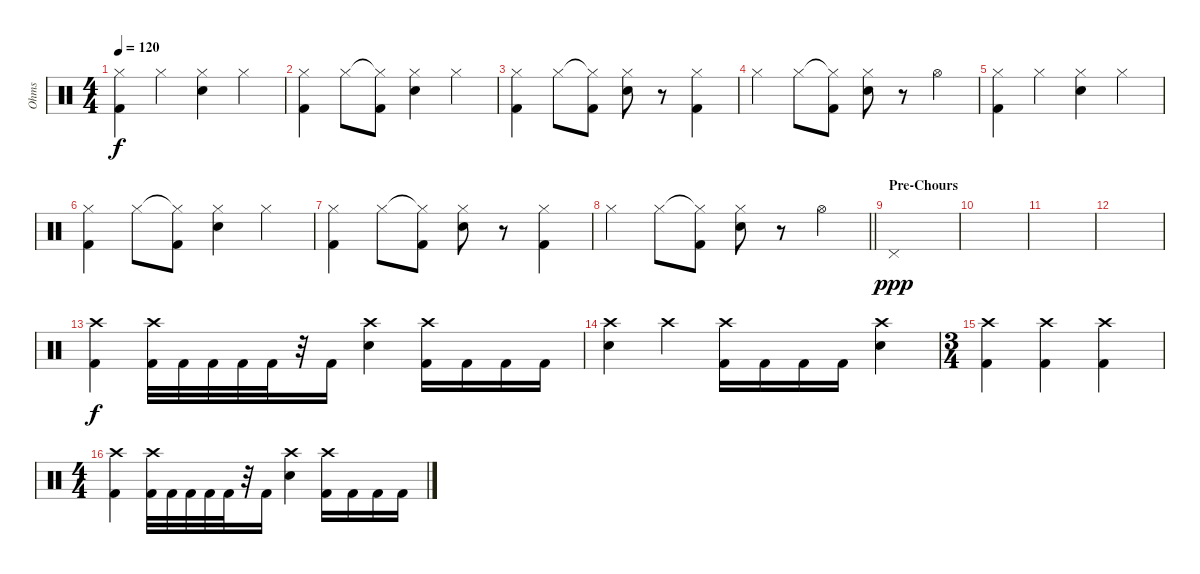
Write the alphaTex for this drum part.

\track ("Ohms" "Ohms") {instrument percussion}
\staff {score}
\articulation defaults
\ts (4 4)
\tempo 120
\clef neutral
\ks c
("Hi-Hat (closed)" "Kick (hit) 2").4{dy f} "Hi-Hat (closed)".4 ("Hi-Hat (closed)" "Snare (hit) 2").4 "Hi-Hat (closed)".4 |
("Hi-Hat (closed)" "Kick (hit) 2").4 "Hi-Hat (closed)".8 ("Hi-Hat (closed)"{t} "Kick (hit) 2").8 ("Hi-Hat (closed)" "Snare (hit) 2").4 "Hi-Hat (closed)".4 |
("Hi-Hat (closed)" "Kick (hit) 2").4 "Hi-Hat (closed)".8 ("Hi-Hat (closed)"{t} "Kick (hit) 2").8 ("Hi-Hat (closed)" "Snare (hit) 2").8 r.8 ("Hi-Hat (closed)" "Kick (hit) 2").4 |
"Hi-Hat (closed)".4 "Hi-Hat (closed)".8 ("Hi-Hat (closed)"{t} "Kick (hit) 2").8 ("Hi-Hat (closed)" "Snare (hit) 2").8 r.8 "Hi-Hat (open)".4 |
("Hi-Hat (closed)" "Kick (hit) 2").4 "Hi-Hat (closed)".4 ("Hi-Hat (closed)" "Snare (hit) 2").4 "Hi-Hat (closed)".4 |
("Hi-Hat (closed)" "Kick (hit) 2").4 "Hi-Hat (closed)".8 ("Hi-Hat (closed)"{t} "Kick (hit) 2").8 ("Hi-Hat (closed)" "Snare (hit) 2").4 "Hi-Hat (closed)".4 |
("Hi-Hat (closed)" "Kick (hit) 2").4 "Hi-Hat (closed)".8 ("Hi-Hat (closed)"{t} "Kick (hit) 2").8 ("Hi-Hat (closed)" "Snare (hit) 2").8 r.8 ("Hi-Hat (closed)" "Kick (hit) 2").4 |
\barLineRight lightlight "Hi-Hat (closed)".4 "Hi-Hat (closed)".8
("Hi-Hat (closed)"{t} "Kick (hit) 2").8 ("Hi-Hat (closed)" "Snare (hit) 2").8 r.8 "Hi-Hat (open)".4 |
\section ("" "Pre-Chours")
"Pedal Hi-Hat (hit)".1{dy ppp} |
|
|
|
("Crash high (hit)" "Kick (hit) 2").4{dy f} ("Crash high (hit)" "Kick (hit) 2").32 "Kick (hit) 2".32 "Kick (hit) 2".32 "Kick (hit) 2".32 "Kick (hit) 2".32 r.32 "Kick (hit) 2".16 ("Crash high (hit)" "Snare (hit) 2").4 ("Crash high (hit)" "Kick (hit) 2").16 "Kick (hit) 2".16 "Kick (hit) 2".16 "Kick (hit) 2".16 |
("Crash high (hit)" "Snare (hit) 2").4 "Crash high (hit)".4 ("Crash high (hit)" "Kick (hit) 2").16 "Kick (hit) 2".16 "Kick (hit) 2".16 "Kick (hit) 2".16 ("Crash high (hit)" "Snare (hit) 2").4 |
\ts (3 4)
("Crash high (hit)" "Kick (hit) 2").4 ("Crash high (hit)" "Kick (hit) 2").4 ("Crash high (hit)" "Kick (hit) 2").4 |
\ts (4 4)
("Crash high (hit)" "Kick (hit) 2").4 ("Crash high (hit)" "Kick (hit) 2").32 "Kick (hit) 2".32 "Kick (hit) 2".32 "Kick (hit) 2".32 "Kick (hit) 2".32 r.32 "Kick (hit) 2".16 ("Crash high (hit)" "Snare (hit) 2").4 ("Crash high (hit)" "Kick (hit) 2").16 "Kick (hit) 2".16 "Kick (hit) 2".16 "Kick (hit) 2".16
